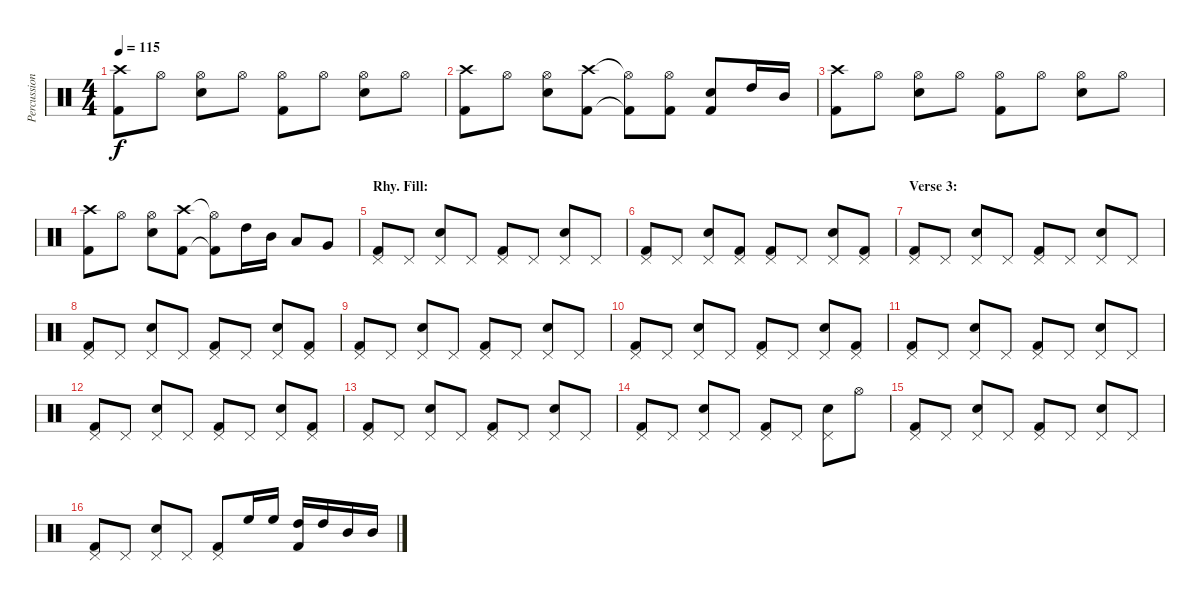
\track ("Percussion" "Percussion") {instrument percussion}
\staff {score}
\articulation defaults
\ts (4 4)
\tempo 115
\clef neutral
\ks c
("Crash high (hit)" "Kick (hit) 2").8{dy f} "Hi-Hat (open)".8 ("Hi-Hat (open)" "Snare (hit) 2").8 "Hi-Hat (open)".8 ("Hi-Hat (open)" "Kick (hit) 2").8 "Hi-Hat (open)".8 ("Hi-Hat (open)" "Snare (hit) 2").8 "Hi-Hat (open)".8 |
("Crash high (hit)" "Kick (hit) 2").8 "Hi-Hat (open)".8 ("Hi-Hat (open)" "Snare (hit) 2").8 ("Crash high (hit)" "Kick (hit) 2").8 ("Hi-Hat (open)"{t} "Kick (hit) 2"{t}).8 ("Hi-Hat (open)" "Kick (hit) 2").8 ("Snare (hit) 2" "Kick (hit) 2").8 "High Tom (hit)".16 "Mid Tom (hit)".16 |
("Crash high (hit)" "Kick (hit) 2").8 "Hi-Hat (open)".8 ("Hi-Hat (open)" "Snare (hit) 2").8 "Hi-Hat (open)".8 ("Hi-Hat (open)" "Kick (hit) 2").8 "Hi-Hat (open)".8 ("Hi-Hat (open)" "Snare (hit) 2").8 "Hi-Hat (open)".8 |
("Crash high (hit)" "Kick (hit) 2").8 "Hi-Hat (open)".8 ("Hi-Hat (open)" "Snare (hit) 2").8 ("Crash high (hit)" "Kick (hit) 2").8 ("Hi-Hat (open)"{t} "Kick (hit) 2"{t}).8 "High Tom (hit)".16 "Mid Tom (hit)".16 "Low Tom (hit)".8 "Very Low Tom (hit)".8 |
\section ("" "Rhy. Fill:")
("Pedal Hi-Hat (hit)" "Kick (hit) 2").8 "Pedal Hi-Hat (hit)".8 ("Pedal Hi-Hat (hit)" "Snare (hit) 2").8 "Pedal Hi-Hat (hit)".8 ("Pedal Hi-Hat (hit)" "Kick (hit) 2").8 "Pedal Hi-Hat (hit)".8 ("Pedal Hi-Hat (hit)" "Snare (hit) 2").8 "Pedal Hi-Hat (hit)".8 |
("Pedal Hi-Hat (hit)" "Kick (hit) 2").8 "Pedal Hi-Hat (hit)".8 ("Pedal Hi-Hat (hit)" "Snare (hit) 2").8 ("Pedal Hi-Hat (hit)" "Kick (hit) 2").8 ("Pedal Hi-Hat (hit)" "Kick (hit) 2").8 "Pedal Hi-Hat (hit)".8 ("Pedal Hi-Hat (hit)" "Snare (hit) 2").8 ("Pedal Hi-Hat (hit)" "Kick (hit) 2").8 |
\section ("" "Verse 3:")
("Pedal Hi-Hat (hit)" "Kick (hit) 2").8 "Pedal Hi-Hat (hit)".8 ("Pedal Hi-Hat (hit)" "Snare (hit) 2").8 "Pedal Hi-Hat (hit)".8 ("Pedal Hi-Hat (hit)" "Kick (hit) 2").8 "Pedal Hi-Hat (hit)".8 ("Pedal Hi-Hat (hit)" "Snare (hit) 2").8 "Pedal Hi-Hat (hit)".8 |
("Pedal Hi-Hat (hit)" "Kick (hit) 2").8 "Pedal Hi-Hat (hit)".8 ("Pedal Hi-Hat (hit)" "Snare (hit) 2").8 "Pedal Hi-Hat (hit)".8 ("Pedal Hi-Hat (hit)" "Kick (hit) 2").8 "Pedal Hi-Hat (hit)".8 ("Pedal Hi-Hat (hit)" "Snare (hit) 2").8 ("Pedal Hi-Hat (hit)" "Kick (hit) 2").8 |
("Pedal Hi-Hat (hit)" "Kick (hit) 2").8 "Pedal Hi-Hat (hit)".8 ("Pedal Hi-Hat (hit)" "Snare (hit) 2").8 "Pedal Hi-Hat (hit)".8 ("Pedal Hi-Hat (hit)" "Kick (hit) 2").8 "Pedal Hi-Hat (hit)".8 ("Pedal Hi-Hat (hit)" "Snare (hit) 2").8 "Pedal Hi-Hat (hit)".8 |
("Pedal Hi-Hat (hit)" "Kick (hit) 2").8 "Pedal Hi-Hat (hit)".8 ("Pedal Hi-Hat (hit)" "Snare (hit) 2").8 "Pedal Hi-Hat (hit)".8 ("Pedal Hi-Hat (hit)" "Kick (hit) 2").8 "Pedal Hi-Hat (hit)".8 ("Pedal Hi-Hat (hit)" "Snare (hit) 2").8 ("Pedal Hi-Hat (hit)" "Kick (hit) 2").8 |
("Pedal Hi-Hat (hit)" "Kick (hit) 2").8 "Pedal Hi-Hat (hit)".8 ("Pedal Hi-Hat (hit)" "Snare (hit) 2").8 "Pedal Hi-Hat (hit)".8 ("Pedal Hi-Hat (hit)" "Kick (hit) 2").8 "Pedal Hi-Hat (hit)".8 ("Pedal Hi-Hat (hit)" "Snare (hit) 2").8 "Pedal Hi-Hat (hit)".8 |
("Pedal Hi-Hat (hit)" "Kick (hit) 2").8 "Pedal Hi-Hat (hit)".8 ("Pedal Hi-Hat (hit)" "Snare (hit) 2").8 "Pedal Hi-Hat (hit)".8 ("Pedal Hi-Hat (hit)" "Kick (hit) 2").8 "Pedal Hi-Hat (hit)".8 ("Pedal Hi-Hat (hit)" "Snare (hit) 2").8 ("Pedal Hi-Hat (hit)" "Kick (hit) 2").8 |
("Pedal Hi-Hat (hit)" "Kick (hit) 2").8 "Pedal Hi-Hat (hit)".8 ("Pedal Hi-Hat (hit)" "Snare (hit) 2").8 "Pedal Hi-Hat (hit)".8 ("Pedal Hi-Hat (hit)" "Kick (hit) 2").8 "Pedal Hi-Hat (hit)".8 ("Pedal Hi-Hat (hit)" "Snare (hit) 2").8 "Pedal Hi-Hat (hit)".8 |
("Pedal Hi-Hat (hit)" "Kick (hit) 2").8 "Pedal Hi-Hat (hit)".8 ("Pedal Hi-Hat (hit)" "Snare (hit) 2").8 "Pedal Hi-Hat (hit)".8 ("Pedal Hi-Hat (hit)" "Kick (hit) 2").8 "Pedal Hi-Hat (hit)".8 ("Pedal Hi-Hat (hit)" "Snare (hit) 2").8 "Hi-Hat (open)".8 |
("Pedal Hi-Hat (hit)" "Kick (hit) 2").8 "Pedal Hi-Hat (hit)".8 ("Pedal Hi-Hat (hit)" "Snare (hit) 2").8 "Pedal Hi-Hat (hit)".8 ("Pedal Hi-Hat (hit)" "Kick (hit) 2").8 "Pedal Hi-Hat (hit)".8 ("Pedal Hi-Hat (hit)" "Snare (hit) 2").8 "Pedal Hi-Hat (hit)".8 |
("Pedal Hi-Hat (hit)" "Kick (hit) 2").8 "Pedal Hi-Hat (hit)".8 ("Pedal Hi-Hat (hit)" "Snare (hit) 2").8 "Pedal Hi-Hat (hit)".8 ("Pedal Hi-Hat (hit)" "Kick (hit) 2").8 "High Floor Tom (hit)".16 "High Floor Tom (hit)".16 ("High Tom (hit)" "Kick (hit) 2").16 "High Tom (hit)".16 "Mid Tom (hit)".16 "Mid Tom (hit)".16
